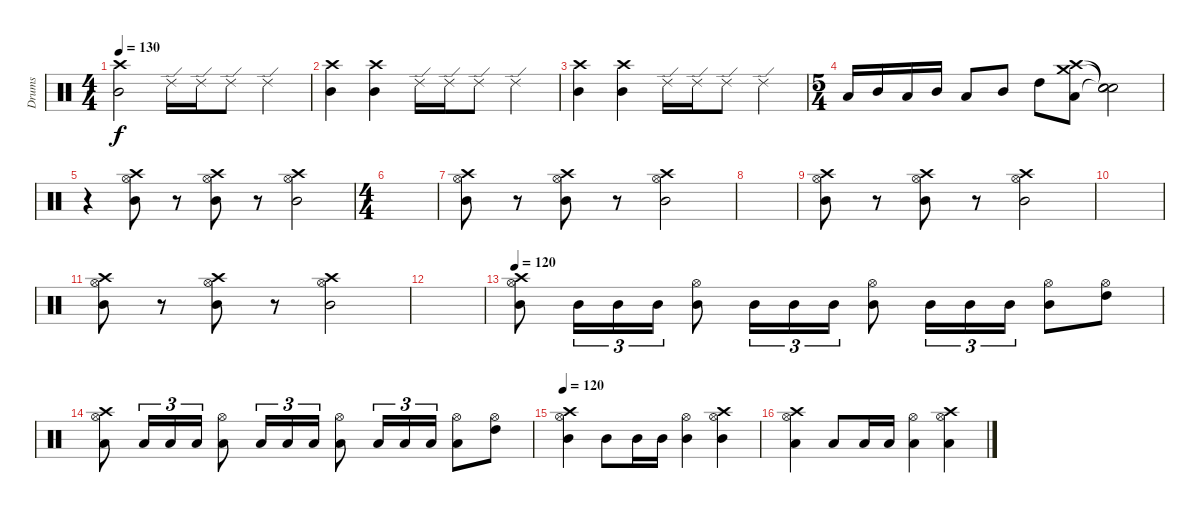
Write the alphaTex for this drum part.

\track ("Drums" "Drums") {instrument percussion}
\staff {score}
\articulation defaults
\ts (4 4)
\tempo 130
\clef neutral
\ks c
("Crash high (hit)" "Mid Tom (hit)").2{dy f} "Ride (edge) 2".16 "Ride (edge) 2".16 "Ride (edge) 2".8 "Ride (edge) 2".4 |
("Crash high (hit)" "Mid Tom (hit)").4 ("Crash high (hit)" "Mid Tom (hit)").4 "Ride (edge) 2".16 "Ride (edge) 2".16 "Ride (edge) 2".8 "Ride (edge) 2".4 |
("Crash high (hit)" "Mid Tom (hit)").4 ("Crash high (hit)" "Mid Tom (hit)").4 "Ride (edge) 2".16 "Ride (edge) 2".16 "Ride (edge) 2".8 "Ride (edge) 2".4 |
\ts (5 4)
"Low Tom (hit)".16 "Mid Tom (hit)".16 "Low Tom (hit)".16 "Mid Tom (hit)".16 "Low Tom (hit)".8 "Mid Tom (hit)".8 "High Tom (hit)".8 ("Crash high (hit)" "Crash medium (hit)" "Low Tom (hit)").8 ("Snare (hit)"{t} "Snare (hit)"{t} "Snare (hit)"{t}).2 |
r.4 ("Hi-Hat (open)" "Crash high (hit)" "Mid Tom (hit)").8 r.8 ("Hi-Hat (open)" "Crash high (hit)" "Mid Tom (hit)").8 r.8 ("Hi-Hat (open)" "Crash high (hit)" "Mid Tom (hit)").2 |
\ts (4 4)
|
("Hi-Hat (open)" "Crash high (hit)" "Mid Tom (hit)").8 r.8 ("Hi-Hat (open)" "Crash high (hit)" "Mid Tom (hit)").8 r.8 ("Hi-Hat (open)" "Crash high (hit)" "Mid Tom (hit)").2 |
|
("Hi-Hat (open)" "Crash high (hit)" "Mid Tom (hit)").8 r.8 ("Hi-Hat (open)" "Crash high (hit)" "Mid Tom (hit)").8 r.8 ("Hi-Hat (open)" "Crash high (hit)" "Mid Tom (hit)").2 |
|
("Hi-Hat (open)" "Crash high (hit)" "Mid Tom (hit)").8 r.8 ("Hi-Hat (open)" "Crash high (hit)" "Mid Tom (hit)").8 r.8 ("Hi-Hat (open)" "Crash high (hit)" "Mid Tom (hit)").2 |
|
\tempo 120
("Hi-Hat (open)" "Mid Tom (hit)" "Crash high (hit)").8 "Mid Tom (hit)".16{tu (3 2)} "Mid Tom (hit)".16{tu (3 2)} "Mid Tom (hit)".16{tu (3 2)} ("Hi-Hat (open)" "Mid Tom (hit)").8 "Mid Tom (hit)".16{tu (3 2)} "Mid Tom (hit)".16{tu (3 2)} "Mid Tom (hit)".16{tu (3 2)} ("Hi-Hat (open)" "Mid Tom (hit)").8 "Mid Tom (hit)".16{tu (3 2)} "Mid Tom (hit)".16{tu (3 2)} "Mid Tom (hit)".16{tu (3 2)} ("Hi-Hat (open)" "Mid Tom (hit)").8 ("Hi-Hat (open)" "High Tom (hit)").8 |
("Hi-Hat (open)" "Low Tom (hit)" "Crash high (hit)").8 "Low Tom (hit)".16{tu (3 2)} "Low Tom (hit)".16{tu (3 2)} "Low Tom (hit)".16{tu (3 2)} ("Hi-Hat (open)" "Low Tom (hit)").8 "Low Tom (hit)".16{tu (3 2)} "Low Tom (hit)".16{tu (3 2)} "Low Tom (hit)".16{tu (3 2)} ("Hi-Hat (open)" "Low Tom (hit)").8 "Low Tom (hit)".16{tu (3 2)} "Low Tom (hit)".16{tu (3 2)} "Low Tom (hit)".16{tu (3 2)} ("Hi-Hat (open)" "Low Tom (hit)").8 ("Hi-Hat (open)" "High Tom (hit)").8 |
\tempo 120
("Hi-Hat (open)" "Mid Tom (hit)" "Crash high (hit)").4 "Mid Tom (hit)".8 "Mid Tom (hit)".16 "Mid Tom (hit)".16 ("Hi-Hat (open)" "Mid Tom (hit)").4 ("Hi-Hat (open)" "Mid Tom (hit)" "Crash high (hit)").4 |
("Hi-Hat (open)" "Low Tom (hit)" "Crash high (hit)").4 "Low Tom (hit)".8 "Low Tom (hit)".16 "Low Tom (hit)".16 ("Hi-Hat (open)" "Low Tom (hit)").4 ("Hi-Hat (open)" "Low Tom (hit)" "Crash high (hit)").4
